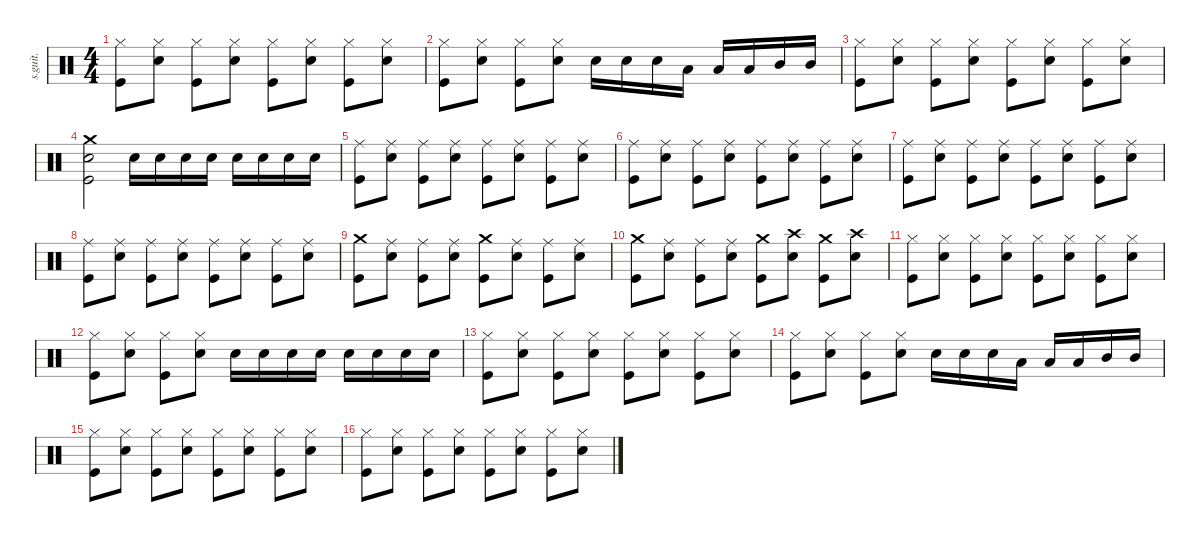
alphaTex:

\defaultSystemsLayout 4
\hideDynamics
\bracketExtendMode nobrackets
\track ("batteire(jesus bonehead)" "s.guit.") {instrument percussion}
\staff {score}
\articulation defaults
\ts (4 4)
\tempo (160 hide)
\clef neutral
\ks c
("Hi-Hat (closed)" "Kick (hit)").8{dy f} ("Hi-Hat (closed)" "Snare (hit) 2").8 ("Hi-Hat (closed)" "Kick (hit)").8 ("Hi-Hat (closed)" "Snare (hit) 2").8 ("Hi-Hat (closed)" "Kick (hit)").8 ("Hi-Hat (closed)" "Snare (hit) 2").8 ("Hi-Hat (closed)" "Kick (hit)").8 ("Hi-Hat (closed)" "Snare (hit) 2").8 |
("Hi-Hat (closed)" "Kick (hit)").8 ("Hi-Hat (closed)" "Snare (hit) 2").8 ("Hi-Hat (closed)" "Kick (hit)").8 ("Hi-Hat (closed)" "Snare (hit) 2").8 "Snare (hit) 2".16 "Snare (hit) 2".16 "Snare (hit) 2".16 "Low Tom (hit)".16 "Low Tom (hit)".16 "Low Tom (hit)".16 "Mid Tom (hit)".16 "Mid Tom (hit)".16 |
("Hi-Hat (closed)" "Kick (hit)").8 ("Hi-Hat (closed)" "Snare (hit) 2").8 ("Hi-Hat (closed)" "Kick (hit)").8 ("Hi-Hat (closed)" "Snare (hit) 2").8 ("Hi-Hat (closed)" "Kick (hit)").8 ("Hi-Hat (closed)" "Snare (hit) 2").8 ("Hi-Hat (closed)" "Kick (hit)").8 ("Hi-Hat (closed)" "Snare (hit) 2").8 |
("Crash medium (hit)" "Snare (hit) 2" "Kick (hit)").2 "Snare (hit) 2".16 "Snare (hit) 2".16 "Snare (hit) 2".16 "Snare (hit) 2".16 "Snare (hit) 2".16 "Snare (hit) 2".16 "Snare (hit) 2".16 "Snare (hit) 2".16 |
("Ride (middle)" "Kick (hit)").8 ("Ride (middle)" "Snare (hit) 2").8 ("Ride (middle)" "Kick (hit)").8 ("Ride (middle)" "Snare (hit) 2").8 ("Ride (middle)" "Kick (hit)").8 ("Ride (middle)" "Snare (hit) 2").8 ("Ride (middle)" "Kick (hit)").8 ("Ride (middle)" "Snare (hit) 2").8 |
("Ride (middle)" "Kick (hit)").8 ("Ride (middle)" "Snare (hit) 2").8 ("Ride (middle)" "Kick (hit)").8 ("Ride (middle)" "Snare (hit) 2").8 ("Ride (middle)" "Kick (hit)").8 ("Ride (middle)" "Snare (hit) 2").8 ("Ride (middle)" "Kick (hit)").8 ("Ride (middle)" "Snare (hit) 2").8 |
("Ride (middle)" "Kick (hit)").8 ("Ride (middle)" "Snare (hit) 2").8 ("Ride (middle)" "Kick (hit)").8 ("Ride (middle)" "Snare (hit) 2").8 ("Ride (middle)" "Kick (hit)").8 ("Ride (middle)" "Snare (hit) 2").8 ("Ride (middle)" "Kick (hit)").8 ("Ride (middle)" "Snare (hit) 2").8 |
("Ride (middle)" "Kick (hit)").8 ("Ride (middle)" "Snare (hit) 2").8 ("Ride (middle)" "Kick (hit)").8 ("Ride (middle)" "Snare (hit) 2").8 ("Ride (middle)" "Kick (hit)").8 ("Ride (middle)" "Snare (hit) 2").8 ("Ride (middle)" "Kick (hit)").8 ("Ride (middle)" "Snare (hit) 2").8 |
("Crash medium (hit)" "Kick (hit)").8 ("Ride (middle)" "Snare (hit) 2").8 ("Ride (middle)" "Kick (hit)").8 ("Ride (middle)" "Snare (hit) 2").8 ("Crash medium (hit)" "Kick (hit)").8 ("Ride (middle)" "Snare (hit) 2").8 ("Ride (middle)" "Kick (hit)").8 ("Ride (middle)" "Snare (hit) 2").8 |
("Crash medium (hit)" "Kick (hit)").8 ("Ride (middle)" "Snare (hit) 2").8 ("Ride (middle)" "Kick (hit)").8 ("Ride (middle)" "Snare (hit) 2").8 ("Crash medium (hit)" "Kick (hit)").8 ("Crash high (hit)" "Snare (hit) 2").8 ("Crash medium (hit)" "Kick (hit)").8 ("Crash high (hit)" "Snare (hit) 2").8 |
("Hi-Hat (closed)" "Kick (hit)").8 ("Hi-Hat (closed)" "Snare (hit) 2").8 ("Hi-Hat (closed)" "Kick (hit)").8 ("Hi-Hat (closed)" "Snare (hit) 2").8 ("Hi-Hat (closed)" "Kick (hit)").8 ("Hi-Hat (closed)" "Snare (hit) 2").8 ("Hi-Hat (closed)" "Kick (hit)").8 ("Hi-Hat (closed)" "Snare (hit) 2").8 |
("Hi-Hat (closed)" "Kick (hit)").8 ("Hi-Hat (closed)" "Snare (hit) 2").8 ("Hi-Hat (closed)" "Kick (hit)").8 ("Hi-Hat (closed)" "Snare (hit) 2").8 "Snare (hit) 2".16 "Snare (hit) 2".16 "Snare (hit) 2".16 "Snare (hit) 2".16 "Snare (hit) 2".16 "Snare (hit) 2".16 "Snare (hit) 2".16 "Snare (hit) 2".16 |
("Hi-Hat (closed)" "Kick (hit)").8 ("Hi-Hat (closed)" "Snare (hit) 2").8 ("Hi-Hat (closed)" "Kick (hit)").8 ("Hi-Hat (closed)" "Snare (hit) 2").8 ("Hi-Hat (closed)" "Kick (hit)").8 ("Hi-Hat (closed)" "Snare (hit) 2").8 ("Hi-Hat (closed)" "Kick (hit)").8 ("Hi-Hat (closed)" "Snare (hit) 2").8 |
("Hi-Hat (closed)" "Kick (hit)").8 ("Hi-Hat (closed)" "Snare (hit) 2").8 ("Hi-Hat (closed)" "Kick (hit)").8 ("Hi-Hat (closed)" "Snare (hit) 2").8 "Snare (hit) 2".16 "Snare (hit) 2".16 "Snare (hit) 2".16 "Low Tom (hit)".16 "Low Tom (hit)".16 "Low Tom (hit)".16 "Mid Tom (hit)".16 "Mid Tom (hit)".16 |
("Hi-Hat (closed)" "Kick (hit)").8 ("Hi-Hat (closed)" "Snare (hit) 2").8 ("Hi-Hat (closed)" "Kick (hit)").8 ("Hi-Hat (closed)" "Snare (hit) 2").8 ("Hi-Hat (closed)" "Kick (hit)").8 ("Hi-Hat (closed)" "Snare (hit) 2").8 ("Hi-Hat (closed)" "Kick (hit)").8 ("Hi-Hat (closed)" "Snare (hit) 2").8 |
("Hi-Hat (closed)" "Kick (hit)").8 ("Hi-Hat (closed)" "Snare (hit) 2").8 ("Hi-Hat (closed)" "Kick (hit)").8 ("Hi-Hat (closed)" "Snare (hit) 2").8 ("Hi-Hat (closed)" "Kick (hit)").8 ("Hi-Hat (closed)" "Snare (hit) 2").8 ("Hi-Hat (closed)" "Kick (hit)").8 ("Hi-Hat (closed)" "Snare (hit) 2").8
